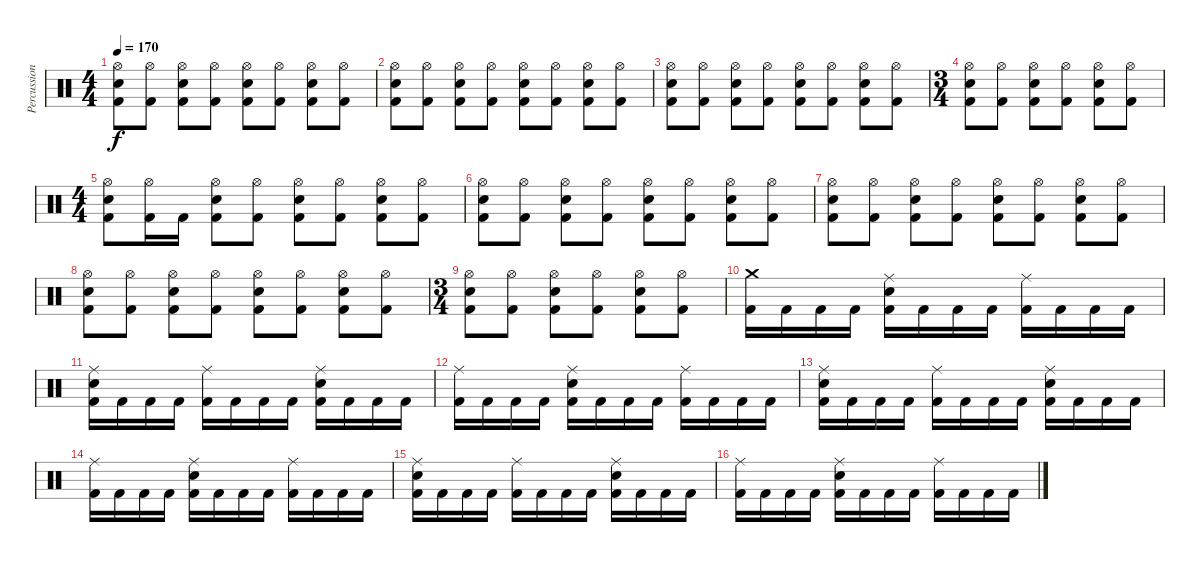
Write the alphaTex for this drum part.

\track ("Percussion" "Percussion") {instrument percussion}
\staff {score}
\articulation defaults
\ts (4 4)
\tempo 170
\clef neutral
\ks c
("Kick (hit) 2" "Snare (hit) 2" "Hi-Hat (open)").8{dy f} ("Kick (hit) 2" "Hi-Hat (open)").8 ("Kick (hit) 2" "Snare (hit) 2" "Hi-Hat (open)").8 ("Kick (hit) 2" "Hi-Hat (open)").8 ("Kick (hit) 2" "Snare (hit) 2" "Hi-Hat (open)").8 ("Kick (hit) 2" "Hi-Hat (open)").8 ("Kick (hit) 2" "Snare (hit) 2" "Hi-Hat (open)").8 ("Kick (hit) 2" "Hi-Hat (open)").8 |
("Kick (hit) 2" "Snare (hit) 2" "Hi-Hat (open)").8 ("Kick (hit) 2" "Hi-Hat (open)").8 ("Kick (hit) 2" "Snare (hit) 2" "Hi-Hat (open)").8 ("Kick (hit) 2" "Hi-Hat (open)").8 ("Kick (hit) 2" "Snare (hit) 2" "Hi-Hat (open)").8 ("Kick (hit) 2" "Hi-Hat (open)").8 ("Kick (hit) 2" "Snare (hit) 2" "Hi-Hat (open)").8 ("Kick (hit) 2" "Hi-Hat (open)").8 |
("Kick (hit) 2" "Snare (hit) 2" "Hi-Hat (open)").8 ("Kick (hit) 2" "Hi-Hat (open)").8 ("Kick (hit) 2" "Snare (hit) 2" "Hi-Hat (open)").8 ("Kick (hit) 2" "Hi-Hat (open)").8 ("Kick (hit) 2" "Snare (hit) 2" "Hi-Hat (open)").8 ("Kick (hit) 2" "Hi-Hat (open)").8 ("Kick (hit) 2" "Snare (hit) 2" "Hi-Hat (open)").8 ("Kick (hit) 2" "Hi-Hat (open)").8 |
\ts (3 4)
("Kick (hit) 2" "Snare (hit) 2" "Hi-Hat (open)").8 ("Kick (hit) 2" "Hi-Hat (open)").8 ("Kick (hit) 2" "Snare (hit) 2" "Hi-Hat (open)").8 ("Kick (hit) 2" "Hi-Hat (open)").8 ("Kick (hit) 2" "Snare (hit) 2" "Hi-Hat (open)").8 ("Kick (hit) 2" "Hi-Hat (open)").8 |
\ts (4 4)
("Kick (hit) 2" "Snare (hit) 2" "Hi-Hat (open)").8 ("Kick (hit) 2" "Hi-Hat (open)").16 "Kick (hit) 2".16 ("Kick (hit) 2" "Snare (hit) 2" "Hi-Hat (open)").8 ("Kick (hit) 2" "Hi-Hat (open)").8 ("Kick (hit) 2" "Snare (hit) 2" "Hi-Hat (open)").8 ("Kick (hit) 2" "Hi-Hat (open)").8 ("Kick (hit) 2" "Snare (hit) 2" "Hi-Hat (open)").8 ("Kick (hit) 2" "Hi-Hat (open)").8 |
("Kick (hit) 2" "Snare (hit) 2" "Hi-Hat (open)").8 ("Kick (hit) 2" "Hi-Hat (open)").8 ("Kick (hit) 2" "Snare (hit) 2" "Hi-Hat (open)").8 ("Kick (hit) 2" "Hi-Hat (open)").8 ("Kick (hit) 2" "Snare (hit) 2" "Hi-Hat (open)").8 ("Kick (hit) 2" "Hi-Hat (open)").8 ("Kick (hit) 2" "Snare (hit) 2" "Hi-Hat (open)").8 ("Kick (hit) 2" "Hi-Hat (open)").8 |
("Kick (hit) 2" "Snare (hit) 2" "Hi-Hat (open)").8 ("Kick (hit) 2" "Hi-Hat (open)").8 ("Kick (hit) 2" "Snare (hit) 2" "Hi-Hat (open)").8 ("Kick (hit) 2" "Hi-Hat (open)").8 ("Kick (hit) 2" "Snare (hit) 2" "Hi-Hat (open)").8 ("Kick (hit) 2" "Hi-Hat (open)").8 ("Kick (hit) 2" "Snare (hit) 2" "Hi-Hat (open)").8 ("Kick (hit) 2" "Hi-Hat (open)").8 |
("Kick (hit) 2" "Snare (hit) 2" "Hi-Hat (open)").8 ("Kick (hit) 2" "Hi-Hat (open)").8 ("Kick (hit) 2" "Snare (hit) 2" "Hi-Hat (open)").8 ("Kick (hit) 2" "Hi-Hat (open)").8 ("Kick (hit) 2" "Snare (hit) 2" "Hi-Hat (open)").8 ("Kick (hit) 2" "Hi-Hat (open)").8 ("Kick (hit) 2" "Snare (hit) 2" "Hi-Hat (open)").8 ("Kick (hit) 2" "Hi-Hat (open)").8 |
\ts (3 4)
("Kick (hit) 2" "Snare (hit) 2" "Hi-Hat (open)").8 ("Kick (hit) 2" "Hi-Hat (open)").8 ("Kick (hit) 2" "Snare (hit) 2" "Hi-Hat (open)").8 ("Kick (hit) 2" "Hi-Hat (open)").8 ("Kick (hit) 2" "Snare (hit) 2" "Hi-Hat (open)").8 ("Kick (hit) 2" "Hi-Hat (open)").8 |
("Kick (hit) 2" "Crash medium (hit)").16 "Kick (hit) 2".16 "Kick (hit) 2".16 "Kick (hit) 2".16 ("Kick (hit) 2" "Snare (hit) 2" "Ride (middle)").16 "Kick (hit) 2".16 "Kick (hit) 2".16 "Kick (hit) 2".16 ("Kick (hit) 2" "Ride (middle)").16 "Kick (hit) 2".16 "Kick (hit) 2".16 "Kick (hit) 2".16 |
("Kick (hit) 2" "Snare (hit) 2" "Ride (middle)").16 "Kick (hit) 2".16 "Kick (hit) 2".16 "Kick (hit) 2".16 ("Kick (hit) 2" "Ride (middle)").16 "Kick (hit) 2".16 "Kick (hit) 2".16 "Kick (hit) 2".16 ("Kick (hit) 2" "Snare (hit) 2" "Ride (middle)").16 "Kick (hit) 2".16 "Kick (hit) 2".16 "Kick (hit) 2".16 |
("Kick (hit) 2" "Ride (middle)").16 "Kick (hit) 2".16 "Kick (hit) 2".16 "Kick (hit) 2".16 ("Kick (hit) 2" "Snare (hit) 2" "Ride (middle)").16 "Kick (hit) 2".16 "Kick (hit) 2".16 "Kick (hit) 2".16 ("Kick (hit) 2" "Ride (middle)").16 "Kick (hit) 2".16 "Kick (hit) 2".16 "Kick (hit) 2".16 |
("Kick (hit) 2" "Snare (hit) 2" "Ride (middle)").16 "Kick (hit) 2".16 "Kick (hit) 2".16 "Kick (hit) 2".16 ("Kick (hit) 2" "Ride (middle)").16 "Kick (hit) 2".16 "Kick (hit) 2".16 "Kick (hit) 2".16 ("Kick (hit) 2" "Snare (hit) 2" "Ride (middle)").16 "Kick (hit) 2".16 "Kick (hit) 2".16 "Kick (hit) 2".16 |
("Kick (hit) 2" "Ride (middle)").16 "Kick (hit) 2".16 "Kick (hit) 2".16 "Kick (hit) 2".16 ("Kick (hit) 2" "Snare (hit) 2" "Ride (middle)").16 "Kick (hit) 2".16 "Kick (hit) 2".16 "Kick (hit) 2".16 ("Kick (hit) 2" "Ride (middle)").16 "Kick (hit) 2".16 "Kick (hit) 2".16 "Kick (hit) 2".16 |
("Kick (hit) 2" "Snare (hit) 2" "Ride (middle)").16 "Kick (hit) 2".16 "Kick (hit) 2".16 "Kick (hit) 2".16 ("Kick (hit) 2" "Ride (middle)").16 "Kick (hit) 2".16 "Kick (hit) 2".16 "Kick (hit) 2".16 ("Kick (hit) 2" "Snare (hit) 2" "Ride (middle)").16 "Kick (hit) 2".16 "Kick (hit) 2".16 "Kick (hit) 2".16 |
("Kick (hit) 2" "Ride (middle)").16 "Kick (hit) 2".16 "Kick (hit) 2".16 "Kick (hit) 2".16 ("Kick (hit) 2" "Snare (hit) 2" "Ride (middle)").16 "Kick (hit) 2".16 "Kick (hit) 2".16 "Kick (hit) 2".16 ("Kick (hit) 2" "Ride (middle)").16 "Kick (hit) 2".16 "Kick (hit) 2".16 "Kick (hit) 2".16
